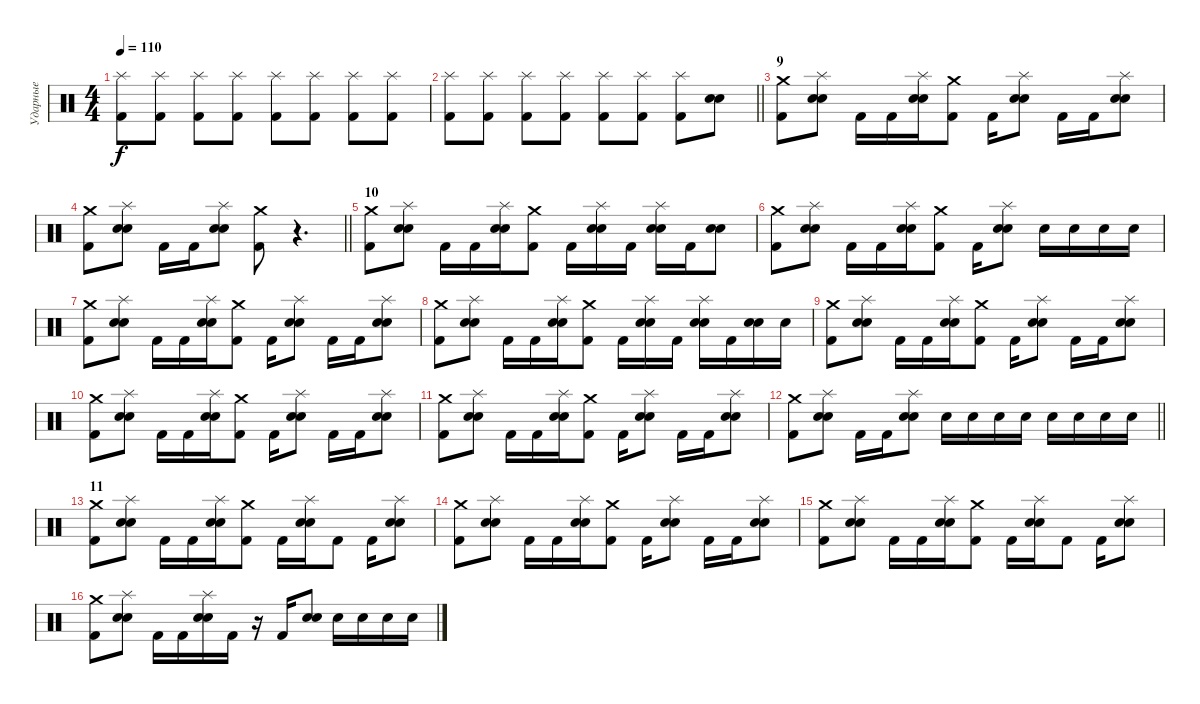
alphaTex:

\track ("Ударные" "Ударные") {instrument percussion}
\staff {score}
\articulation defaults
\ts (4 4)
\tempo 110
\clef neutral
\ks c
("Splash (hit)" "Kick (hit) 2").8{dy f} ("Splash (hit)" "Kick (hit) 2").8 ("Splash (hit)" "Kick (hit) 2").8 ("Splash (hit)" "Kick (hit) 2").8 ("Splash (hit)" "Kick (hit) 2").8 ("Splash (hit)" "Kick (hit) 2").8 ("Splash (hit)" "Kick (hit) 2").8 ("Splash (hit)" "Kick (hit) 2").8 |
\barLineRight lightlight
("Splash (hit)" "Kick (hit) 2").8 ("Splash (hit)" "Kick (hit) 2").8 ("Splash (hit)" "Kick (hit) 2").8 ("Splash (hit)" "Kick (hit) 2").8 ("Splash (hit)" "Kick (hit) 2").8 ("Splash (hit)" "Kick (hit) 2").8 ("Splash (hit)" "Kick (hit) 2").8 ("Electric Snare (hit)" "Snare (hit) 2").8 |
\section ("" "9")
("Crash medium (hit)" "Kick (hit) 2").8 ("Splash (hit)" "Electric Snare (hit)" "Snare (hit) 2").8 "Kick (hit) 2".16 "Kick (hit) 2".16 ("Splash (hit)" "Electric Snare (hit)" "Snare (hit) 2").16 ("Crash medium (hit)" "Kick (hit) 2").8 "Kick (hit) 2".16 ("Splash (hit)" "Electric Snare (hit)" "Snare (hit) 2").8 "Kick (hit) 2".16 "Kick (hit) 2".16 ("Splash (hit)" "Electric Snare (hit)" "Snare (hit) 2").8 |
\barLineRight lightlight
("Crash medium (hit)" "Kick (hit) 2").8 ("Splash (hit)" "Electric Snare (hit)" "Snare (hit) 2").8 "Kick (hit) 2".16 "Kick (hit) 2".16 ("Splash (hit)" "Electric Snare (hit)" "Snare (hit) 2").8 ("Crash medium (hit)" "Kick (hit) 2").8 r.4{d} |
\section ("" "10")
("Crash medium (hit)" "Kick (hit) 2").8 ("Splash (hit)" "Electric Snare (hit)" "Snare (hit) 2").8 "Kick (hit) 2".16 "Kick (hit) 2".16 ("Splash (hit)" "Electric Snare (hit)" "Snare (hit) 2").16 ("Crash medium (hit)" "Kick (hit) 2").8 "Kick (hit) 2".16 ("Splash (hit)" "Electric Snare (hit)" "Snare (hit) 2").16 "Kick (hit) 2".16 ("Splash (hit)" "Electric Snare (hit)" "Snare (hit) 2").16 "Kick (hit) 2".16 ("Electric Snare (hit)" "Snare (hit) 2").8 |
("Crash medium (hit)" "Kick (hit) 2").8 ("Splash (hit)" "Electric Snare (hit)" "Snare (hit) 2").8 "Kick (hit) 2".16 "Kick (hit) 2".16 ("Splash (hit)" "Electric Snare (hit)" "Snare (hit) 2").16 ("Crash medium (hit)" "Kick (hit) 2").8 "Kick (hit) 2".16 ("Splash (hit)" "Electric Snare (hit)" "Snare (hit) 2").8 "Electric Snare (hit)".16 "Electric Snare (hit)".16 "Electric Snare (hit)".16 "Electric Snare (hit)".16 |
("Crash medium (hit)" "Kick (hit) 2").8 ("Splash (hit)" "Electric Snare (hit)" "Snare (hit) 2").8 "Kick (hit) 2".16 "Kick (hit) 2".16 ("Splash (hit)" "Electric Snare (hit)" "Snare (hit) 2").16 ("Crash medium (hit)" "Kick (hit) 2").8 "Kick (hit) 2".16 ("Splash (hit)" "Electric Snare (hit)" "Snare (hit) 2").8 "Kick (hit) 2".16 "Kick (hit) 2".16 ("Splash (hit)" "Electric Snare (hit)" "Snare (hit) 2").8 |
("Crash medium (hit)" "Kick (hit) 2").8 ("Splash (hit)" "Electric Snare (hit)" "Snare (hit) 2").8 "Kick (hit) 2".16 "Kick (hit) 2".16 ("Splash (hit)" "Electric Snare (hit)" "Snare (hit) 2").16 ("Crash medium (hit)" "Kick (hit) 2").8 "Kick (hit) 2".16 ("Splash (hit)" "Electric Snare (hit)" "Snare (hit) 2").16 "Kick (hit) 2".16 ("Splash (hit)" "Electric Snare (hit)" "Snare (hit) 2").16 "Kick (hit) 2".16 ("Electric Snare (hit)" "Snare (hit) 2").16 "Electric Snare (hit)".16 |
("Crash medium (hit)" "Kick (hit) 2").8 ("Splash (hit)" "Electric Snare (hit)" "Snare (hit) 2").8 "Kick (hit) 2".16 "Kick (hit) 2".16 ("Splash (hit)" "Electric Snare (hit)" "Snare (hit) 2").16 ("Crash medium (hit)" "Kick (hit) 2").8 "Kick (hit) 2".16 ("Splash (hit)" "Electric Snare (hit)" "Snare (hit) 2").8 "Kick (hit) 2".16 "Kick (hit) 2".16 ("Splash (hit)" "Electric Snare (hit)" "Snare (hit) 2").8 |
("Crash medium (hit)" "Kick (hit) 2").8 ("Splash (hit)" "Electric Snare (hit)" "Snare (hit) 2").8 "Kick (hit) 2".16 "Kick (hit) 2".16 ("Splash (hit)" "Electric Snare (hit)" "Snare (hit) 2").16 ("Crash medium (hit)" "Kick (hit) 2").8 "Kick (hit) 2".16 ("Splash (hit)" "Electric Snare (hit)" "Snare (hit) 2").8 "Kick (hit) 2".16 "Kick (hit) 2".16 ("Splash (hit)" "Electric Snare (hit)" "Snare (hit) 2").8 |
("Crash medium (hit)" "Kick (hit) 2").8 ("Splash (hit)" "Electric Snare (hit)" "Snare (hit) 2").8 "Kick (hit) 2".16 "Kick (hit) 2".16 ("Splash (hit)" "Electric Snare (hit)" "Snare (hit) 2").16 ("Crash medium (hit)" "Kick (hit) 2").8 "Kick (hit) 2".16 ("Splash (hit)" "Electric Snare (hit)" "Snare (hit) 2").8 "Kick (hit) 2".16 "Kick (hit) 2".16 ("Splash (hit)" "Electric Snare (hit)" "Snare (hit) 2").8 |
\barLineRight lightlight
("Crash medium (hit)" "Kick (hit) 2").8 ("Splash (hit)" "Electric Snare (hit)" "Snare (hit) 2").8 "Kick (hit) 2".16 "Kick (hit) 2".16 ("Splash (hit)" "Electric Snare (hit)" "Snare (hit) 2").8 "Electric Snare (hit)".16 "Electric Snare (hit)".16 "Electric Snare (hit)".16 "Electric Snare (hit)".16 "Electric Snare (hit)".16 "Electric Snare (hit)".16 "Electric Snare (hit)".16 "Electric Snare (hit)".16 |
\section ("" "11")
("Crash medium (hit)" "Kick (hit) 2").8 ("Splash (hit)" "Electric Snare (hit)" "Snare (hit) 2").8 "Kick (hit) 2".16 "Kick (hit) 2".16 ("Splash (hit)" "Electric Snare (hit)" "Snare (hit) 2").16 ("Crash medium (hit)" "Kick (hit) 2").8 "Kick (hit) 2".16 ("Splash (hit)" "Electric Snare (hit)" "Snare (hit) 2").16 "Kick (hit) 2".8 "Kick (hit) 2".16 ("Splash (hit)" "Electric Snare (hit)" "Snare (hit) 2").8 |
("Crash medium (hit)" "Kick (hit) 2").8 ("Splash (hit)" "Electric Snare (hit)" "Snare (hit) 2").8 "Kick (hit) 2".16 "Kick (hit) 2".16 ("Splash (hit)" "Electric Snare (hit)" "Snare (hit) 2").16 ("Crash medium (hit)" "Kick (hit) 2").8 "Kick (hit) 2".16 ("Splash (hit)" "Electric Snare (hit)" "Snare (hit) 2").8 "Kick (hit) 2".16 "Kick (hit) 2".16 ("Splash (hit)" "Electric Snare (hit)" "Snare (hit) 2").8 |
("Crash medium (hit)" "Kick (hit) 2").8 ("Splash (hit)" "Electric Snare (hit)" "Snare (hit) 2").8 "Kick (hit) 2".16 "Kick (hit) 2".16 ("Splash (hit)" "Electric Snare (hit)" "Snare (hit) 2").16 ("Crash medium (hit)" "Kick (hit) 2").8 "Kick (hit) 2".16 ("Splash (hit)" "Electric Snare (hit)" "Snare (hit) 2").16 "Kick (hit) 2".8 "Kick (hit) 2".16 ("Splash (hit)" "Electric Snare (hit)" "Snare (hit) 2").8 |
("Crash medium (hit)" "Kick (hit) 2").8 ("Splash (hit)" "Electric Snare (hit)" "Snare (hit) 2").8 "Kick (hit) 2".16 "Kick (hit) 2".16 ("Splash (hit)" "Electric Snare (hit)" "Snare (hit) 2").16 "Kick (hit) 2".16 r.16 "Kick (hit) 2".16 ("Electric Snare (hit)" "Snare (hit) 2").8 "Electric Snare (hit)".16 "Electric Snare (hit)".16 "Electric Snare (hit)".16 "Electric Snare (hit)".16
